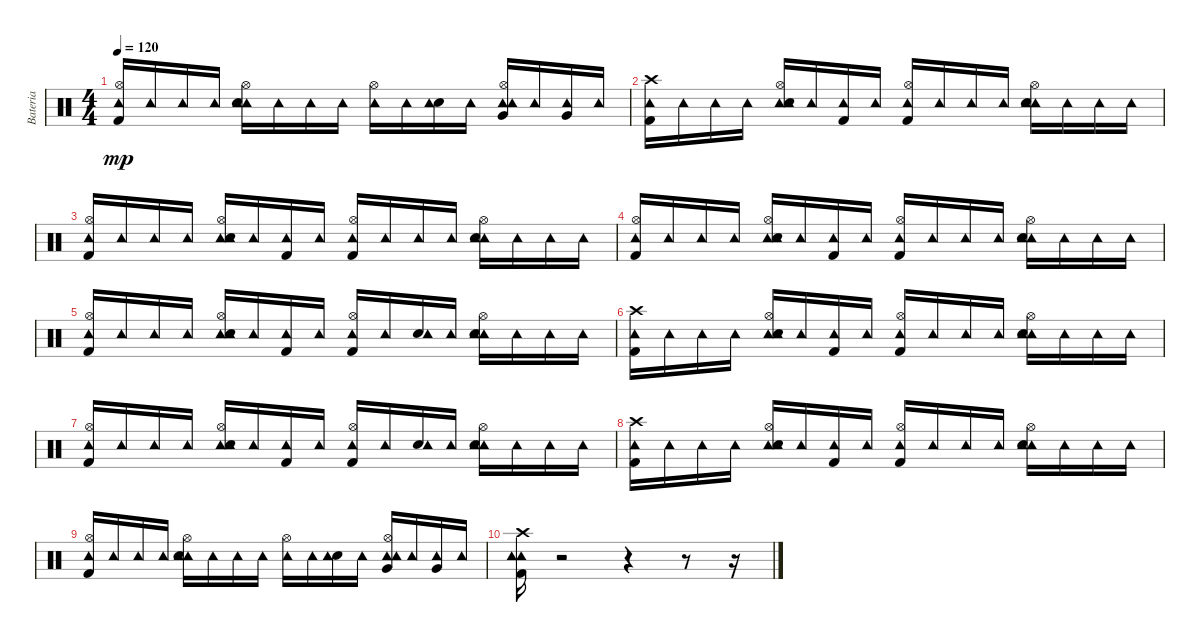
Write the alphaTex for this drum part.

\track ("Bateria" "Bateria") {instrument percussion}
\staff {score}
\articulation defaults
\ts (4 4)
\tempo 120
\clef neutral
\ks c
("Tambourine (hit)" "Hi-Hat (open)" "Kick (hit) 2").16{dy mp} "Tambourine (hit)".16 "Tambourine (hit)".16 "Tambourine (hit)".16 ("Tambourine (hit)" "Tambourine (hit)" "Hi-Hat (open)" "Snare (hit) 2").16 "Tambourine (hit)".16 "Tambourine (hit)".16 "Tambourine (hit)".16 ("Tambourine (hit)" "Hi-Hat (open)").16 "Tambourine (hit)".16 ("Snare (hit) 2" "Tambourine (hit)").16 "Tambourine (hit)".16 ("Very Low Tom (hit)" "Tambourine (hit)" "Tambourine (hit)" "Hi-Hat (open)").16 "Tambourine (hit)".16 ("Very Low Tom (hit)" "Tambourine (hit)").16 "Tambourine (hit)".16 |
("Tambourine (hit)" "Kick (hit) 2" "Crash high (hit)").16 "Tambourine (hit)".16 "Tambourine (hit)".16 "Tambourine (hit)".16 ("Tambourine (hit)" "Tambourine (hit)" "Snare (hit) 2" "Hi-Hat (open)").16 "Tambourine (hit)".16 ("Tambourine (hit)" "Kick (hit) 2").16 "Tambourine (hit)".16 ("Tambourine (hit)" "Hi-Hat (open)" "Kick (hit) 2").16 "Tambourine (hit)".16 "Tambourine (hit)".16 "Tambourine (hit)".16 ("Tambourine (hit)" "Tambourine (hit)" "Hi-Hat (open)" "Snare (hit) 2").16 "Tambourine (hit)".16 "Tambourine (hit)".16 "Tambourine (hit)".16 |
("Tambourine (hit)" "Hi-Hat (open)" "Kick (hit) 2").16 "Tambourine (hit)".16 "Tambourine (hit)".16 "Tambourine (hit)".16 ("Tambourine (hit)" "Tambourine (hit)" "Hi-Hat (open)" "Snare (hit) 2").16 "Tambourine (hit)".16 ("Tambourine (hit)" "Kick (hit) 2").16 "Tambourine (hit)".16 ("Tambourine (hit)" "Hi-Hat (open)" "Kick (hit) 2").16 "Tambourine (hit)".16 "Tambourine (hit)".16 "Tambourine (hit)".16 ("Tambourine (hit)" "Tambourine (hit)" "Hi-Hat (open)" "Snare (hit) 2").16 "Tambourine (hit)".16 "Tambourine (hit)".16 "Tambourine (hit)".16 |
("Tambourine (hit)" "Hi-Hat (open)" "Kick (hit) 2").16 "Tambourine (hit)".16 "Tambourine (hit)".16 "Tambourine (hit)".16 ("Tambourine (hit)" "Tambourine (hit)" "Snare (hit) 2" "Hi-Hat (open)").16 "Tambourine (hit)".16 ("Tambourine (hit)" "Kick (hit) 2").16 "Tambourine (hit)".16 ("Tambourine (hit)" "Hi-Hat (open)" "Kick (hit) 2").16 "Tambourine (hit)".16 "Tambourine (hit)".16 "Tambourine (hit)".16 ("Tambourine (hit)" "Tambourine (hit)" "Hi-Hat (open)" "Snare (hit) 2").16 "Tambourine (hit)".16 "Tambourine (hit)".16 "Tambourine (hit)".16 |
("Tambourine (hit)" "Hi-Hat (open)" "Kick (hit) 2").16 "Tambourine (hit)".16 "Tambourine (hit)".16 "Tambourine (hit)".16 ("Tambourine (hit)" "Tambourine (hit)" "Hi-Hat (open)" "Snare (hit) 2").16 "Tambourine (hit)".16 ("Tambourine (hit)" "Kick (hit) 2").16 "Tambourine (hit)".16 ("Tambourine (hit)" "Hi-Hat (open)" "Kick (hit) 2").16 "Tambourine (hit)".16 ("Snare (hit) 2" "Tambourine (hit)").16 "Tambourine (hit)".16 ("Tambourine (hit)" "Tambourine (hit)" "Hi-Hat (open)" "Snare (hit) 2").16 "Tambourine (hit)".16 "Tambourine (hit)".16 "Tambourine (hit)".16 |
("Tambourine (hit)" "Kick (hit) 2" "Crash high (hit)").16 "Tambourine (hit)".16 "Tambourine (hit)".16 "Tambourine (hit)".16 ("Tambourine (hit)" "Tambourine (hit)" "Snare (hit) 2" "Hi-Hat (open)").16 "Tambourine (hit)".16 ("Tambourine (hit)" "Kick (hit) 2").16 "Tambourine (hit)".16 ("Tambourine (hit)" "Hi-Hat (open)" "Kick (hit) 2").16 "Tambourine (hit)".16 "Tambourine (hit)".16 "Tambourine (hit)".16 ("Tambourine (hit)" "Tambourine (hit)" "Hi-Hat (open)" "Snare (hit) 2").16 "Tambourine (hit)".16 "Tambourine (hit)".16 "Tambourine (hit)".16 |
("Tambourine (hit)" "Hi-Hat (open)" "Kick (hit) 2").16 "Tambourine (hit)".16 "Tambourine (hit)".16 "Tambourine (hit)".16 ("Tambourine (hit)" "Tambourine (hit)" "Hi-Hat (open)" "Snare (hit) 2").16 "Tambourine (hit)".16 ("Tambourine (hit)" "Kick (hit) 2").16 "Tambourine (hit)".16 ("Tambourine (hit)" "Hi-Hat (open)" "Kick (hit) 2").16 "Tambourine (hit)".16 ("Snare (hit) 2" "Tambourine (hit)").16 "Tambourine (hit)".16 ("Tambourine (hit)" "Tambourine (hit)" "Hi-Hat (open)" "Snare (hit) 2").16 "Tambourine (hit)".16 "Tambourine (hit)".16 "Tambourine (hit)".16 |
("Crash high (hit)" "Tambourine (hit)" "Kick (hit) 2").16 "Tambourine (hit)".16 "Tambourine (hit)".16 "Tambourine (hit)".16 ("Tambourine (hit)" "Tambourine (hit)" "Hi-Hat (open)" "Snare (hit) 2").16 "Tambourine (hit)".16 ("Tambourine (hit)" "Kick (hit) 2").16 "Tambourine (hit)".16 ("Tambourine (hit)" "Hi-Hat (open)" "Kick (hit) 2").16 "Tambourine (hit)".16 "Tambourine (hit)".16 "Tambourine (hit)".16 ("Tambourine (hit)" "Tambourine (hit)" "Hi-Hat (open)" "Snare (hit) 2").16 "Tambourine (hit)".16 "Tambourine (hit)".16 "Tambourine (hit)".16 |
("Tambourine (hit)" "Hi-Hat (open)" "Kick (hit) 2").16 "Tambourine (hit)".16 "Tambourine (hit)".16 "Tambourine (hit)".16 ("Tambourine (hit)" "Tambourine (hit)" "Hi-Hat (open)" "Snare (hit) 2").16 "Tambourine (hit)".16 "Tambourine (hit)".16 "Tambourine (hit)".16 ("Tambourine (hit)" "Hi-Hat (open)").16 "Tambourine (hit)".16 ("Snare (hit) 2" "Tambourine (hit)").16 "Tambourine (hit)".16 ("Very Low Tom (hit)" "Tambourine (hit)" "Tambourine (hit)" "Hi-Hat (open)").16 "Tambourine (hit)".16 ("Very Low Tom (hit)" "Tambourine (hit)").16 "Tambourine (hit)".16 |
("Tambourine (hit)" "Tambourine (hit)" "Kick (hit) 2" "Crash high (hit)").16 r.2 r.4 r.8 r.16
